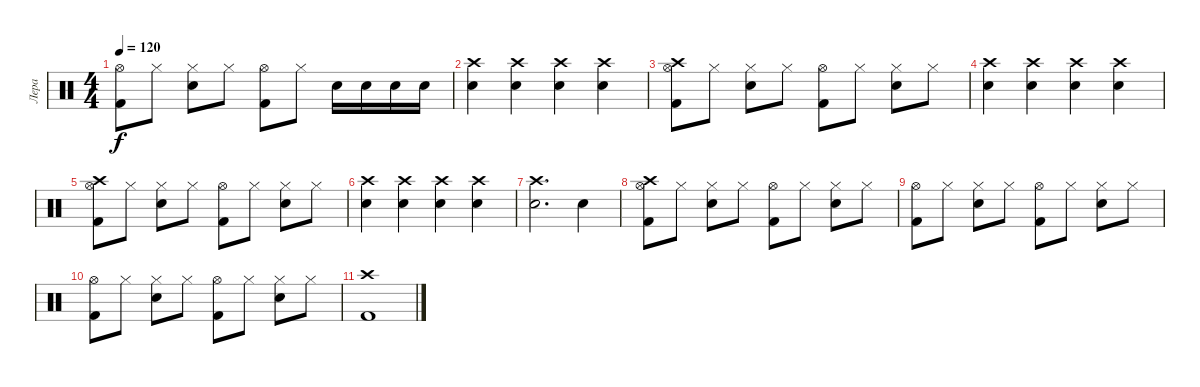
\track ("Лера" "Лера") {instrument percussion}
\staff {score}
\articulation defaults
\ts (4 4)
\tempo 120
\clef neutral
\ks c
("Hi-Hat (open)" "Kick (hit) 2").8{dy f} "Hi-Hat (closed)".8 ("Hi-Hat (closed)" "Electric Snare (hit)").8 "Hi-Hat (closed)".8 ("Hi-Hat (open)" "Kick (hit) 2").8 "Hi-Hat (closed)".8 "Electric Snare (hit)".16 "Electric Snare (hit)".16 "Electric Snare (hit)".16 "Electric Snare (hit)".16 |
("Electric Snare (hit)" "Crash high (hit)").4 ("Electric Snare (hit)" "Crash high (hit)").4 ("Electric Snare (hit)" "Crash high (hit)").4 ("Electric Snare (hit)" "Crash high (hit)").4 |
("Hi-Hat (open)" "Kick (hit) 2" "Crash high (hit)").8 "Hi-Hat (closed)".8 ("Hi-Hat (closed)" "Electric Snare (hit)").8 "Hi-Hat (closed)".8 ("Hi-Hat (open)" "Kick (hit) 2").8 "Hi-Hat (closed)".8 ("Hi-Hat (closed)" "Electric Snare (hit)").8 "Hi-Hat (closed)".8 |
("Electric Snare (hit)" "Crash high (hit)").4 ("Electric Snare (hit)" "Crash high (hit)").4 ("Electric Snare (hit)" "Crash high (hit)").4 ("Electric Snare (hit)" "Crash high (hit)").4 |
("Hi-Hat (open)" "Kick (hit) 2" "Crash high (hit)").8 "Hi-Hat (closed)".8 ("Hi-Hat (closed)" "Electric Snare (hit)").8 "Hi-Hat (closed)".8 ("Hi-Hat (open)" "Kick (hit) 2").8 "Hi-Hat (closed)".8 ("Hi-Hat (closed)" "Electric Snare (hit)").8 "Hi-Hat (closed)".8 |
("Electric Snare (hit)" "Crash high (hit)").4 ("Electric Snare (hit)" "Crash high (hit)").4 ("Electric Snare (hit)" "Crash high (hit)").4 ("Electric Snare (hit)" "Crash high (hit)").4 |
("Electric Snare (hit)" "Crash high (hit)").2{d} "Electric Snare (hit)".4 |
("Hi-Hat (open)" "Kick (hit) 2" "Crash high (hit)").8 "Hi-Hat (closed)".8 ("Hi-Hat (closed)" "Electric Snare (hit)").8 "Hi-Hat (closed)".8 ("Hi-Hat (open)" "Kick (hit) 2").8 "Hi-Hat (closed)".8 ("Hi-Hat (closed)" "Electric Snare (hit)").8 "Hi-Hat (closed)".8 |
("Hi-Hat (open)" "Kick (hit) 2").8 "Hi-Hat (closed)".8 ("Hi-Hat (closed)" "Electric Snare (hit)").8 "Hi-Hat (closed)".8 ("Hi-Hat (open)" "Kick (hit) 2").8 "Hi-Hat (closed)".8 ("Hi-Hat (closed)" "Electric Snare (hit)").8 "Hi-Hat (closed)".8 |
("Hi-Hat (open)" "Kick (hit) 2").8 "Hi-Hat (closed)".8 ("Hi-Hat (closed)" "Electric Snare (hit)").8 "Hi-Hat (closed)".8 ("Hi-Hat (open)" "Kick (hit) 2").8 "Hi-Hat (closed)".8 ("Hi-Hat (closed)" "Electric Snare (hit)").8 "Hi-Hat (closed)".8 |
("Crash high (hit)" "Kick (hit) 2").1
